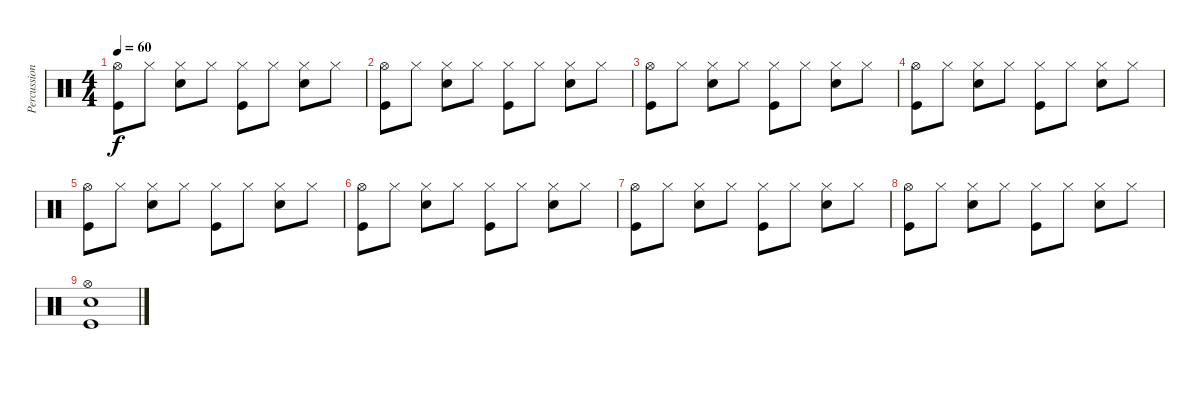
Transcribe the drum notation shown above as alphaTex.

\track ("Percussion" "Percussion") {instrument percussion}
\staff {score}
\articulation defaults
\ts (4 4)
\tempo 60
\clef neutral
\ks c
("Hi-Hat (open)" "Kick (hit)").8{dy f} "Hi-Hat (closed)".8 ("Hi-Hat (closed)" "Electric Snare (hit)").8 "Hi-Hat (closed)".8 ("Hi-Hat (closed)" "Kick (hit)").8 "Hi-Hat (closed)".8 ("Hi-Hat (closed)" "Electric Snare (hit)").8 "Hi-Hat (closed)".8 |
("Hi-Hat (open)" "Kick (hit)").8 "Hi-Hat (closed)".8 ("Hi-Hat (closed)" "Electric Snare (hit)").8 "Hi-Hat (closed)".8 ("Hi-Hat (closed)" "Kick (hit)").8 "Hi-Hat (closed)".8 ("Hi-Hat (closed)" "Electric Snare (hit)").8 "Hi-Hat (closed)".8 |
("Hi-Hat (open)" "Kick (hit)").8 "Hi-Hat (closed)".8 ("Hi-Hat (closed)" "Electric Snare (hit)").8 "Hi-Hat (closed)".8 ("Hi-Hat (closed)" "Kick (hit)").8 "Hi-Hat (closed)".8 ("Hi-Hat (closed)" "Electric Snare (hit)").8 "Hi-Hat (closed)".8 |
("Hi-Hat (open)" "Kick (hit)").8 "Hi-Hat (closed)".8 ("Hi-Hat (closed)" "Electric Snare (hit)").8 "Hi-Hat (closed)".8 ("Hi-Hat (closed)" "Kick (hit)").8 "Hi-Hat (closed)".8 ("Hi-Hat (closed)" "Electric Snare (hit)").8 "Hi-Hat (closed)".8 |
("Hi-Hat (open)" "Kick (hit)").8 "Hi-Hat (closed)".8 ("Hi-Hat (closed)" "Electric Snare (hit)").8 "Hi-Hat (closed)".8 ("Hi-Hat (closed)" "Kick (hit)").8 "Hi-Hat (closed)".8 ("Hi-Hat (closed)" "Electric Snare (hit)").8 "Hi-Hat (closed)".8 |
("Hi-Hat (open)" "Kick (hit)").8 "Hi-Hat (closed)".8 ("Hi-Hat (closed)" "Electric Snare (hit)").8 "Hi-Hat (closed)".8 ("Hi-Hat (closed)" "Kick (hit)").8 "Hi-Hat (closed)".8 ("Hi-Hat (closed)" "Electric Snare (hit)").8 "Hi-Hat (closed)".8 |
("Hi-Hat (open)" "Kick (hit)").8 "Hi-Hat (closed)".8 ("Hi-Hat (closed)" "Electric Snare (hit)").8 "Hi-Hat (closed)".8 ("Hi-Hat (closed)" "Kick (hit)").8 "Hi-Hat (closed)".8 ("Hi-Hat (closed)" "Electric Snare (hit)").8 "Hi-Hat (closed)".8 |
("Hi-Hat (open)" "Kick (hit)").8 "Hi-Hat (closed)".8 ("Hi-Hat (closed)" "Electric Snare (hit)").8 "Hi-Hat (closed)".8 ("Hi-Hat (closed)" "Kick (hit)").8 "Hi-Hat (closed)".8 ("Hi-Hat (closed)" "Electric Snare (hit)").8 "Hi-Hat (closed)".8 |
("Hi-Hat (open)" "Kick (hit)" "Electric Snare (hit)").1
